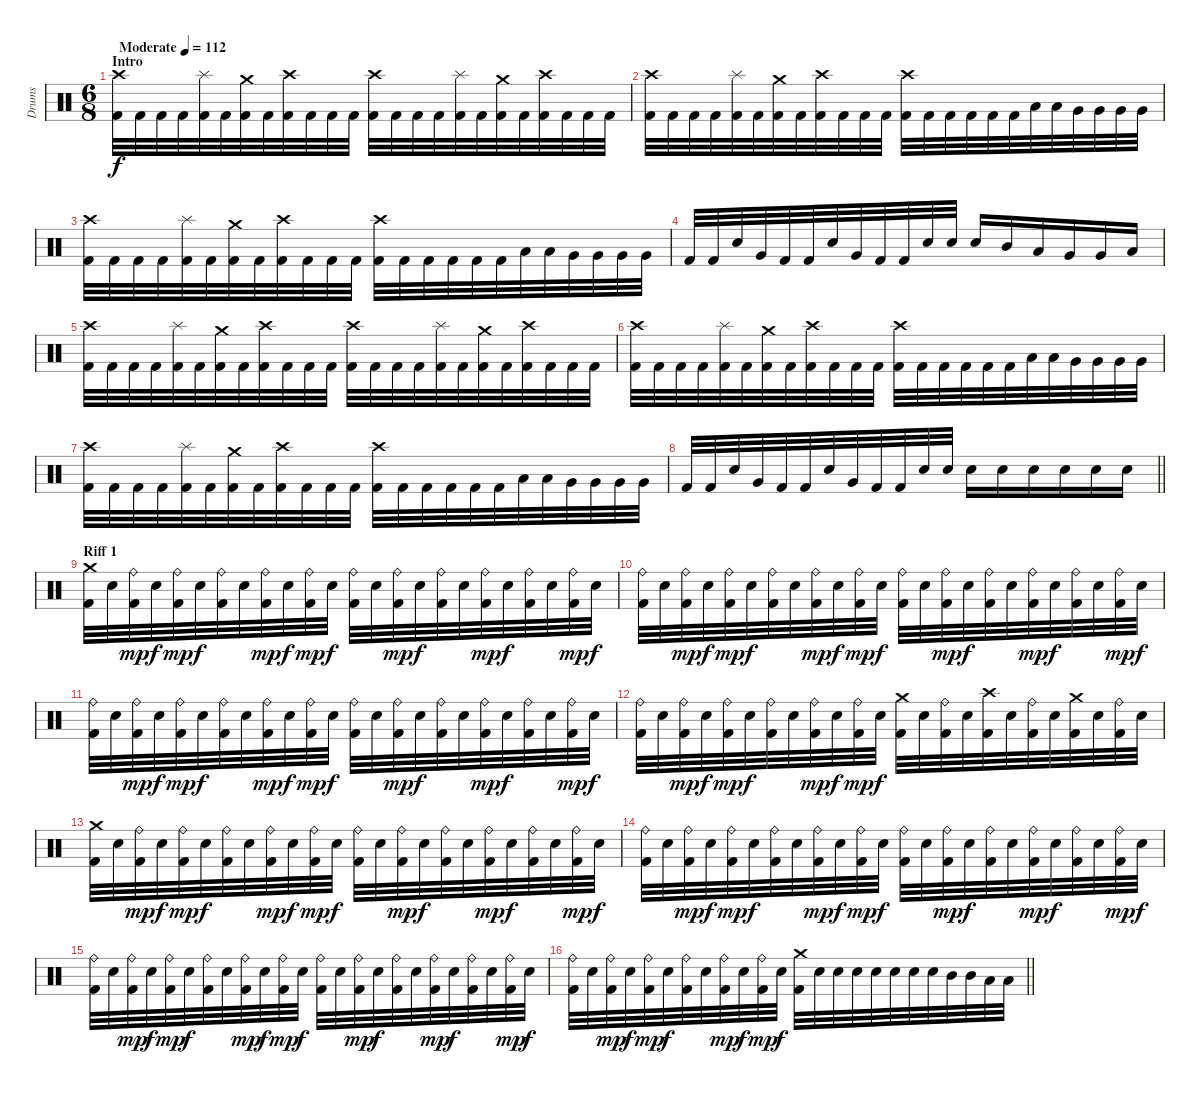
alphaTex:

\track ("Drums" "Drums") {instrument percussion}
\staff {score}
\articulation defaults
\ts (6 8)
\section ("" "Intro")
\tempo (112 "Moderate")
\clef neutral
\ks c
("Kick (hit) 2" "Crash high (hit)").32{dy f} "Kick (hit) 2".32 "Kick (hit) 2".32 "Kick (hit) 2".32 ("Kick (hit) 2" "Splash (hit)").32 "Kick (hit) 2".32 ("Kick (hit) 2" "Crash medium (hit)").32 "Kick (hit) 2".32 ("Kick (hit) 2" "Crash high (hit)").32 "Kick (hit) 2".32 "Kick (hit) 2".32 "Kick (hit) 2".32 ("Kick (hit) 2" "Crash high (hit)").32 "Kick (hit) 2".32 "Kick (hit) 2".32 "Kick (hit) 2".32 ("Kick (hit) 2" "Splash (hit)").32 "Kick (hit) 2".32 ("Kick (hit) 2" "Crash medium (hit)").32 "Kick (hit) 2".32 ("Kick (hit) 2" "Crash high (hit)").32 "Kick (hit) 2".32 "Kick (hit) 2".32 "Kick (hit) 2".32 |
("Kick (hit) 2" "Crash high (hit)").32 "Kick (hit) 2".32 "Kick (hit) 2".32 "Kick (hit) 2".32 ("Kick (hit) 2" "Splash (hit)").32 "Kick (hit) 2".32 ("Kick (hit) 2" "Crash medium (hit)").32 "Kick (hit) 2".32 ("Kick (hit) 2" "Crash high (hit)").32 "Kick (hit) 2".32 "Kick (hit) 2".32 "Kick (hit) 2".32 ("Kick (hit) 2" "Crash high (hit)").32 "Kick (hit) 2".32 "Kick (hit) 2".32 "Kick (hit) 2".32 "Kick (hit) 2".32 "Kick (hit) 2".32 "Low Tom (hit)".32 "Low Tom (hit)".32 "Very Low Tom (hit)".32 "Very Low Tom (hit)".32 "Very Low Tom (hit)".32 "Very Low Tom (hit)".32 |
("Kick (hit) 2" "Crash high (hit)").32 "Kick (hit) 2".32 "Kick (hit) 2".32 "Kick (hit) 2".32 ("Kick (hit) 2" "Splash (hit)").32 "Kick (hit) 2".32 ("Kick (hit) 2" "Crash medium (hit)").32 "Kick (hit) 2".32 ("Kick (hit) 2" "Crash high (hit)").32 "Kick (hit) 2".32 "Kick (hit) 2".32 "Kick (hit) 2".32 ("Kick (hit) 2" "Crash high (hit)").32 "Kick (hit) 2".32 "Kick (hit) 2".32 "Kick (hit) 2".32 "Kick (hit) 2".32 "Kick (hit) 2".32 "Low Tom (hit)".32 "Low Tom (hit)".32 "Very Low Tom (hit)".32 "Very Low Tom (hit)".32 "Very Low Tom (hit)".32 "Very Low Tom (hit)".32 |
"Kick (hit) 2".32 "Kick (hit) 2".32 "Electric Snare (hit)".32 "Very Low Tom (hit)".32 "Kick (hit) 2".32 "Kick (hit) 2".32 "Electric Snare (hit)".32 "Very Low Tom (hit)".32 "Kick (hit) 2".32 "Kick (hit) 2".32 "Electric Snare (hit)".32 "Electric Snare (hit)".32 "Electric Snare (hit)".16 "Mid Tom (hit)".16 "Low Tom (hit)".16 "Very Low Tom (hit)".16 "Very Low Tom (hit)".16 "Low Floor Tom (hit)".16 |
("Kick (hit) 2" "Crash high (hit)").32 "Kick (hit) 2".32 "Kick (hit) 2".32 "Kick (hit) 2".32 ("Kick (hit) 2" "Splash (hit)").32 "Kick (hit) 2".32 ("Kick (hit) 2" "Crash medium (hit)").32 "Kick (hit) 2".32 ("Kick (hit) 2" "Crash high (hit)").32 "Kick (hit) 2".32 "Kick (hit) 2".32 "Kick (hit) 2".32 ("Kick (hit) 2" "Crash high (hit)").32 "Kick (hit) 2".32 "Kick (hit) 2".32 "Kick (hit) 2".32 ("Kick (hit) 2" "Splash (hit)").32 "Kick (hit) 2".32 ("Kick (hit) 2" "Crash medium (hit)").32 "Kick (hit) 2".32 ("Kick (hit) 2" "Crash high (hit)").32 "Kick (hit) 2".32 "Kick (hit) 2".32 "Kick (hit) 2".32 |
("Kick (hit) 2" "Crash high (hit)").32 "Kick (hit) 2".32 "Kick (hit) 2".32 "Kick (hit) 2".32 ("Kick (hit) 2" "Splash (hit)").32 "Kick (hit) 2".32 ("Kick (hit) 2" "Crash medium (hit)").32 "Kick (hit) 2".32 ("Kick (hit) 2" "Crash high (hit)").32 "Kick (hit) 2".32 "Kick (hit) 2".32 "Kick (hit) 2".32 ("Kick (hit) 2" "Crash high (hit)").32 "Kick (hit) 2".32 "Kick (hit) 2".32 "Kick (hit) 2".32 "Kick (hit) 2".32 "Kick (hit) 2".32 "Low Tom (hit)".32 "Low Tom (hit)".32 "Very Low Tom (hit)".32 "Very Low Tom (hit)".32 "Very Low Tom (hit)".32 "Very Low Tom (hit)".32 |
("Kick (hit) 2" "Crash high (hit)").32 "Kick (hit) 2".32 "Kick (hit) 2".32 "Kick (hit) 2".32 ("Kick (hit) 2" "Splash (hit)").32 "Kick (hit) 2".32 ("Kick (hit) 2" "Crash medium (hit)").32 "Kick (hit) 2".32 ("Kick (hit) 2" "Crash high (hit)").32 "Kick (hit) 2".32 "Kick (hit) 2".32 "Kick (hit) 2".32 ("Kick (hit) 2" "Crash high (hit)").32 "Kick (hit) 2".32 "Kick (hit) 2".32 "Kick (hit) 2".32 "Kick (hit) 2".32 "Kick (hit) 2".32 "Low Tom (hit)".32 "Low Tom (hit)".32 "Very Low Tom (hit)".32 "Very Low Tom (hit)".32 "Very Low Tom (hit)".32 "Very Low Tom (hit)".32 |
\barLineRight lightlight "Kick (hit) 2".32 "Kick (hit) 2".32 "Electric Snare (hit)".32 "Very Low Tom (hit)".32 "Kick (hit) 2".32 "Kick (hit) 2".32 "Electric Snare (hit)".32 "Very Low Tom (hit)".32 "Kick (hit) 2".32 "Kick (hit) 2".32 "Electric Snare (hit)".32 "Electric Snare (hit)".32 "Electric Snare (hit)".16 "Electric Snare (hit)".16 "Electric Snare (hit)".16 "Electric Snare (hit)".16 "Electric Snare (hit)".16 "Electric Snare (hit)".16
|
\section ("" "Riff 1")
("Crash medium (hit)" "Kick (hit) 2").32 "Electric Snare (hit)".32 ("Ride (bell)" "Kick (hit) 2").32{dy mp} "Electric Snare (hit)".32{dy f} ("Ride (bell)" "Kick (hit) 2").32{dy mp} "Electric Snare (hit)".32{dy f} ("Ride (bell)" "Kick (hit) 2").32 "Electric Snare (hit)".32 ("Ride (bell)" "Kick (hit) 2").32{dy mp} "Electric Snare (hit)".32{dy f} ("Ride (bell)" "Kick (hit) 2").32{dy mp} "Electric Snare (hit)".32{dy f} ("Ride (bell)" "Kick (hit) 2").32 "Electric Snare (hit)".32 ("Ride (bell)" "Kick (hit) 2").32{dy mp} "Electric Snare (hit)".32{dy f} ("Ride (bell)" "Kick (hit) 2").32 "Electric Snare (hit)".32 ("Ride (bell)" "Kick (hit) 2").32{dy mp} "Electric Snare (hit)".32{dy f} ("Ride (bell)" "Kick (hit) 2").32 "Electric Snare (hit)".32 ("Ride (bell)" "Kick (hit) 2").32{dy mp} "Electric Snare (hit)".32{dy f} |
("Ride (bell)" "Kick (hit) 2").32 "Electric Snare (hit)".32 ("Ride (bell)" "Kick (hit) 2").32{dy mp} "Electric Snare (hit)".32{dy f} ("Ride (bell)" "Kick (hit) 2").32{dy mp} "Electric Snare (hit)".32{dy f} ("Ride (bell)" "Kick (hit) 2").32 "Electric Snare (hit)".32 ("Ride (bell)" "Kick (hit) 2").32{dy mp} "Electric Snare (hit)".32{dy f} ("Ride (bell)" "Kick (hit) 2").32{dy mp} "Electric Snare (hit)".32{dy f} ("Ride (bell)" "Kick (hit) 2").32 "Electric Snare (hit)".32 ("Ride (bell)" "Kick (hit) 2").32{dy mp} "Electric Snare (hit)".32{dy f} ("Ride (bell)" "Kick (hit) 2").32 "Electric Snare (hit)".32 ("Ride (bell)" "Kick (hit) 2").32{dy mp} "Electric Snare (hit)".32{dy f} ("Ride (bell)" "Kick (hit) 2").32 "Electric Snare (hit)".32 ("Ride (bell)" "Kick (hit) 2").32{dy mp} "Electric Snare (hit)".32{dy f} |
("Ride (bell)" "Kick (hit) 2").32 "Electric Snare (hit)".32 ("Ride (bell)" "Kick (hit) 2").32{dy mp} "Electric Snare (hit)".32{dy f} ("Ride (bell)" "Kick (hit) 2").32{dy mp} "Electric Snare (hit)".32{dy f} ("Ride (bell)" "Kick (hit) 2").32 "Electric Snare (hit)".32 ("Ride (bell)" "Kick (hit) 2").32{dy mp} "Electric Snare (hit)".32{dy f} ("Ride (bell)" "Kick (hit) 2").32{dy mp} "Electric Snare (hit)".32{dy f} ("Ride (bell)" "Kick (hit) 2").32 "Electric Snare (hit)".32 ("Ride (bell)" "Kick (hit) 2").32{dy mp} "Electric Snare (hit)".32{dy f} ("Ride (bell)" "Kick (hit) 2").32 "Electric Snare (hit)".32 ("Ride (bell)" "Kick (hit) 2").32{dy mp} "Electric Snare (hit)".32{dy f} ("Ride (bell)" "Kick (hit) 2").32 "Electric Snare (hit)".32 ("Ride (bell)" "Kick (hit) 2").32{dy mp} "Electric Snare (hit)".32{dy f} |
("Ride (bell)" "Kick (hit) 2").32 "Electric Snare (hit)".32 ("Ride (bell)" "Kick (hit) 2").32{dy mp} "Electric Snare (hit)".32{dy f} ("Ride (bell)" "Kick (hit) 2").32{dy mp} "Electric Snare (hit)".32{dy f} ("Ride (bell)" "Kick (hit) 2").32 "Electric Snare (hit)".32 ("Ride (bell)" "Kick (hit) 2").32{dy mp} "Electric Snare (hit)".32{dy f} ("Ride (bell)" "Kick (hit) 2").32{dy mp} "Electric Snare (hit)".32{dy f} ("Crash medium (hit)" "Kick (hit) 2").32 "Electric Snare (hit)".32 ("Ride (bell)" "Kick (hit) 2").32 "Electric Snare (hit)".32 ("Crash high (hit)" "Kick (hit) 2").32 "Electric Snare (hit)".32 ("Ride (bell)" "Kick (hit) 2").32 "Electric Snare (hit)".32 ("Crash medium (hit)" "Kick (hit) 2").32 "Electric Snare (hit)".32 ("Ride (bell)" "Kick (hit) 2").32 "Electric Snare (hit)".32 |
("Crash medium (hit)" "Kick (hit) 2").32 "Electric Snare (hit)".32 ("Ride (bell)" "Kick (hit) 2").32{dy mp} "Electric Snare (hit)".32{dy f} ("Ride (bell)" "Kick (hit) 2").32{dy mp} "Electric Snare (hit)".32{dy f} ("Ride (bell)" "Kick (hit) 2").32 "Electric Snare (hit)".32 ("Ride (bell)" "Kick (hit) 2").32{dy mp} "Electric Snare (hit)".32{dy f} ("Ride (bell)" "Kick (hit) 2").32{dy mp} "Electric Snare (hit)".32{dy f} ("Ride (bell)" "Kick (hit) 2").32 "Electric Snare (hit)".32 ("Ride (bell)" "Kick (hit) 2").32{dy mp} "Electric Snare (hit)".32{dy f} ("Ride (bell)" "Kick (hit) 2").32 "Electric Snare (hit)".32 ("Ride (bell)" "Kick (hit) 2").32{dy mp} "Electric Snare (hit)".32{dy f} ("Ride (bell)" "Kick (hit) 2").32 "Electric Snare (hit)".32 ("Ride (bell)" "Kick (hit) 2").32{dy mp} "Electric Snare (hit)".32{dy f} |
("Ride (bell)" "Kick (hit) 2").32 "Electric Snare (hit)".32 ("Ride (bell)" "Kick (hit) 2").32{dy mp} "Electric Snare (hit)".32{dy f} ("Ride (bell)" "Kick (hit) 2").32{dy mp} "Electric Snare (hit)".32{dy f} ("Ride (bell)" "Kick (hit) 2").32 "Electric Snare (hit)".32 ("Ride (bell)" "Kick (hit) 2").32{dy mp} "Electric Snare (hit)".32{dy f} ("Ride (bell)" "Kick (hit) 2").32{dy mp} "Electric Snare (hit)".32{dy f} ("Ride (bell)" "Kick (hit) 2").32 "Electric Snare (hit)".32 ("Ride (bell)" "Kick (hit) 2").32{dy mp} "Electric Snare (hit)".32{dy f} ("Ride (bell)" "Kick (hit) 2").32 "Electric Snare (hit)".32 ("Ride (bell)" "Kick (hit) 2").32{dy mp} "Electric Snare (hit)".32{dy f} ("Ride (bell)" "Kick (hit) 2").32 "Electric Snare (hit)".32 ("Ride (bell)" "Kick (hit) 2").32{dy mp} "Electric Snare (hit)".32{dy f} |
("Ride (bell)" "Kick (hit) 2").32 "Electric Snare (hit)".32 ("Ride (bell)" "Kick (hit) 2").32{dy mp} "Electric Snare (hit)".32{dy f} ("Ride (bell)" "Kick (hit) 2").32{dy mp} "Electric Snare (hit)".32{dy f} ("Ride (bell)" "Kick (hit) 2").32 "Electric Snare (hit)".32 ("Ride (bell)" "Kick (hit) 2").32{dy mp} "Electric Snare (hit)".32{dy f} ("Ride (bell)" "Kick (hit) 2").32{dy mp} "Electric Snare (hit)".32{dy f} ("Ride (bell)" "Kick (hit) 2").32 "Electric Snare (hit)".32 ("Ride (bell)" "Kick (hit) 2").32{dy mp} "Electric Snare (hit)".32{dy f} ("Ride (bell)" "Kick (hit) 2").32 "Electric Snare (hit)".32 ("Ride (bell)" "Kick (hit) 2").32{dy mp} "Electric Snare (hit)".32{dy f} ("Ride (bell)" "Kick (hit) 2").32 "Electric Snare (hit)".32 ("Ride (bell)" "Kick (hit) 2").32{dy mp} "Electric Snare (hit)".32{dy f} |
\barLineRight lightlight
("Ride (bell)" "Kick (hit) 2").32 "Electric Snare (hit)".32 ("Ride (bell)" "Kick (hit) 2").32{dy mp} "Electric Snare (hit)".32{dy f} ("Ride (bell)" "Kick (hit) 2").32{dy mp} "Electric Snare (hit)".32{dy f} ("Ride (bell)" "Kick (hit) 2").32 "Electric Snare (hit)".32 ("Ride (bell)" "Kick (hit) 2").32{dy mp} "Electric Snare (hit)".32{dy f} ("Ride (bell)" "Kick (hit) 2").32{dy mp} "Electric Snare (hit)".32{dy f} ("Crash medium (hit)" "Kick (hit) 2").32 "Electric Snare (hit)".32 "Electric Snare (hit)".32 "Electric Snare (hit)".32 "Electric Snare (hit)".32 "Electric Snare (hit)".32 "Electric Snare (hit)".32 "Electric Snare (hit)".32 "Mid Tom (hit)".32 "Mid Tom (hit)".32 "Low Tom (hit)".32 "Low Tom (hit)".32
